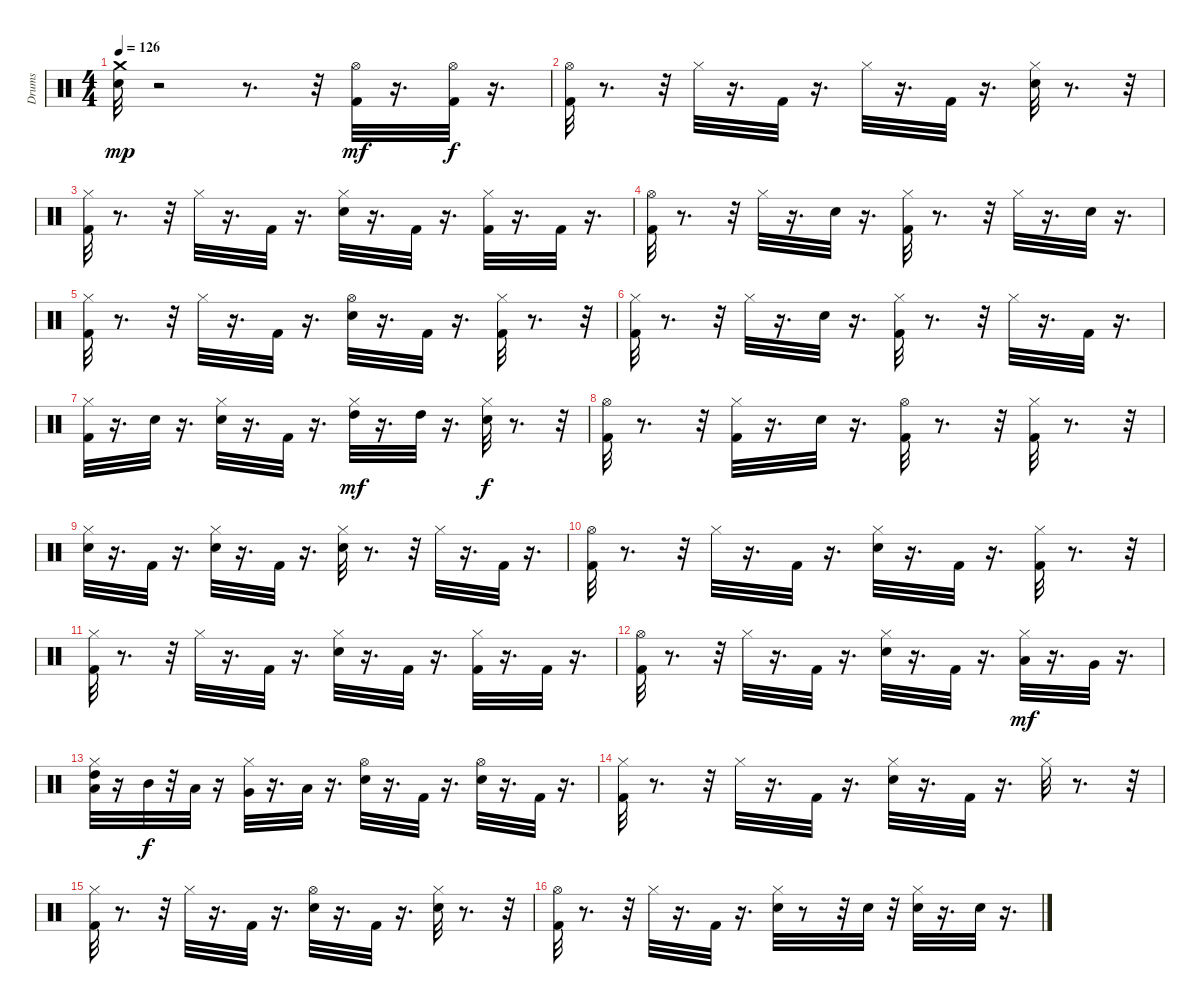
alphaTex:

\track ("Drums" "Drums") {instrument percussion}
\staff {score}
\articulation defaults
\ts (4 4)
\tempo 126
\clef neutral
\ks c
("Snare (hit) 2" "Crash medium (hit)").32{dy mp} r.2 r.8{d} r.32 ("Kick (hit) 2" "Hi-Hat (open)").32{dy mf} r.16{d} ("Kick (hit) 2" "Hi-Hat (open)").32{dy f} r.16{d} |
("Kick (hit) 2" "Hi-Hat (open)").32 r.8{d} r.32 "Hi-Hat (closed)".32 r.16{d} "Kick (hit) 2".32 r.16{d} "Hi-Hat (closed)".32 r.16{d} "Kick (hit) 2".32 r.16{d} ("Snare (hit) 2" "Hi-Hat (closed)").32 r.8{d} r.32 |
("Kick (hit) 2" "Hi-Hat (closed)").32 r.8{d} r.32 "Hi-Hat (closed)".32 r.16{d} "Kick (hit) 2".32 r.16{d} ("Snare (hit) 2" "Hi-Hat (closed)").32 r.16{d} "Kick (hit) 2".32 r.16{d} ("Kick (hit) 2" "Hi-Hat (closed)").32 r.16{d} "Kick (hit) 2".32 r.16{d} |
("Kick (hit) 2" "Hi-Hat (open)").32 r.8{d} r.32 "Hi-Hat (closed)".32 r.16{d} "Snare (hit) 2".32 r.16{d} ("Kick (hit) 2" "Hi-Hat (closed)").32 r.8{d} r.32 "Hi-Hat (closed)".32 r.16{d} "Snare (hit) 2".32 r.16{d} |
("Kick (hit) 2" "Hi-Hat (closed)").32 r.8{d} r.32 "Hi-Hat (closed)".32 r.16{d} "Kick (hit) 2".32 r.16{d} ("Snare (hit) 2" "Hi-Hat (open)").32 r.16{d} "Kick (hit) 2".32 r.16{d} ("Kick (hit) 2" "Hi-Hat (closed)").32 r.8{d} r.32 |
("Kick (hit) 2" "Hi-Hat (closed)").32 r.8{d} r.32 "Hi-Hat (closed)".32 r.16{d} "Snare (hit) 2".32 r.16{d} ("Kick (hit) 2" "Hi-Hat (closed)").32 r.8{d} r.32 "Hi-Hat (closed)".32 r.16{d} "Kick (hit) 2".32 r.16{d} |
("Kick (hit) 2" "Hi-Hat (closed)").32 r.16{d} "Snare (hit) 2".32 r.16{d} ("Snare (hit) 2" "Hi-Hat (closed)").32 r.16{d} "Kick (hit) 2".32 r.16{d} ("Hi-Hat (closed)" "High Tom (hit)").32{dy mf} r.16{d} "High Tom (hit)".32 r.16{d} ("Snare (hit) 2" "Hi-Hat (closed)").32{dy f} r.8{d} r.32 |
("Kick (hit) 2" "Hi-Hat (open)").32 r.8{d} r.32 ("Kick (hit) 2" "Hi-Hat (closed)").32 r.16{d} "Snare (hit) 2".32 r.16{d} ("Kick (hit) 2" "Hi-Hat (open)").32 r.8{d} r.32 ("Kick (hit) 2" "Hi-Hat (closed)").32 r.8{d} r.32 |
("Snare (hit) 2" "Hi-Hat (closed)").32 r.16{d} "Kick (hit) 2".32 r.16{d} ("Snare (hit) 2" "Hi-Hat (closed)").32 r.16{d} "Kick (hit) 2".32 r.16{d} ("Snare (hit) 2" "Hi-Hat (closed)").32 r.8{d} r.32 "Hi-Hat (closed)".32 r.16{d} "Kick (hit) 2".32 r.16{d} |
("Kick (hit) 2" "Hi-Hat (open)").32 r.8{d} r.32 "Hi-Hat (closed)".32 r.16{d} "Kick (hit) 2".32 r.16{d} ("Snare (hit) 2" "Hi-Hat (closed)").32 r.16{d} "Kick (hit) 2".32 r.16{d} ("Kick (hit) 2" "Hi-Hat (closed)").32 r.8{d} r.32 |
("Kick (hit) 2" "Hi-Hat (closed)").32 r.8{d} r.32 "Hi-Hat (closed)".32 r.16{d} "Kick (hit) 2".32 r.16{d} ("Snare (hit) 2" "Hi-Hat (closed)").32 r.16{d} "Kick (hit) 2".32 r.16{d} ("Kick (hit) 2" "Hi-Hat (closed)").32 r.16{d} "Kick (hit) 2".32 r.16{d} |
("Kick (hit) 2" "Hi-Hat (open)").32 r.8{d} r.32 "Hi-Hat (closed)".32 r.16{d} "Kick (hit) 2".32 r.16{d} ("Snare (hit) 2" "Hi-Hat (closed)").32 r.16{d} "Kick (hit) 2".32 r.16{d} ("Hi-Hat (closed)" "Low Tom (hit)").32{dy mf} r.16{d} "Very Low Tom (hit)".32 r.16{d} |
("Low Floor Tom (hit)" "Hi-Hat (closed)" "High Tom (hit)").32 r.16 "Mid Tom (hit)".32{dy f} r.32 "Low Tom (hit)".32 r.16 ("Hi-Hat (closed)" "Very Low Tom (hit)").32 r.16{d} "Low Floor Tom (hit)".32 r.16{d} ("Snare (hit) 2" "Hi-Hat (open)").32 r.16{d} "Kick (hit) 2".32 r.16{d} ("Snare (hit) 2" "Hi-Hat (open)").32 r.16{d} "Kick (hit) 2".32 r.16{d} |
("Kick (hit) 2" "Hi-Hat (closed)").32 r.8{d} r.32 "Hi-Hat (closed)".32 r.16{d} "Kick (hit) 2".32 r.16{d} ("Snare (hit) 2" "Hi-Hat (closed)").32 r.16{d} "Kick (hit) 2".32 r.16{d} "Hi-Hat (closed)".32 r.8{d} r.32 |
("Kick (hit) 2" "Hi-Hat (closed)").32 r.8{d} r.32 "Hi-Hat (closed)".32 r.16{d} "Kick (hit) 2".32 r.16{d} ("Snare (hit) 2" "Hi-Hat (open)").32 r.16{d} "Kick (hit) 2".32 r.16{d} ("Snare (hit) 2" "Hi-Hat (closed)").32 r.8{d} r.32 |
("Kick (hit) 2" "Hi-Hat (open)").32 r.8{d} r.32 "Hi-Hat (closed)".32 r.16{d} "Kick (hit) 2".32 r.16{d} ("Snare (hit) 2" "Hi-Hat (closed)").32 r.8 r.32 "Snare (hit) 2".32 r.32 ("Snare (hit) 2" "Hi-Hat (closed)").32 r.16{d} "Snare (hit) 2".32 r.16{d}
